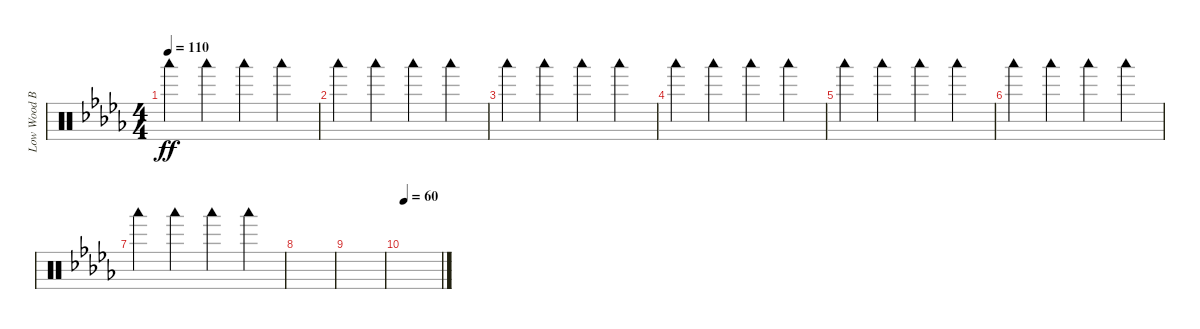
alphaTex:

\track ("Low Wood Blick / Side Stick" "Low Wood B") {instrument percussion}
\staff {score}
\articulation defaults
\ts (4 4)
\tempo 110
\clef neutral
\ks db "Woodblock low (hit)".4{dy ff} "Woodblock low (hit)".4 "Woodblock low (hit)".4 "Woodblock low (hit)".4
|
"Woodblock low (hit)".4 "Woodblock low (hit)".4 "Woodblock low (hit)".4 "Woodblock low (hit)".4 |
"Woodblock low (hit)".4 "Woodblock low (hit)".4 "Woodblock low (hit)".4 "Woodblock low (hit)".4 |
"Woodblock low (hit)".4 "Woodblock low (hit)".4 "Woodblock low (hit)".4 "Woodblock low (hit)".4 |
"Woodblock low (hit)".4 "Woodblock low (hit)".4 "Woodblock low (hit)".4 "Woodblock low (hit)".4 |
"Woodblock low (hit)".4 "Woodblock low (hit)".4 "Woodblock low (hit)".4 "Woodblock low (hit)".4 |
"Woodblock low (hit)".4 "Woodblock low (hit)".4 "Woodblock low (hit)".4 "Woodblock low (hit)".4 |
|
|
\tempo 60
